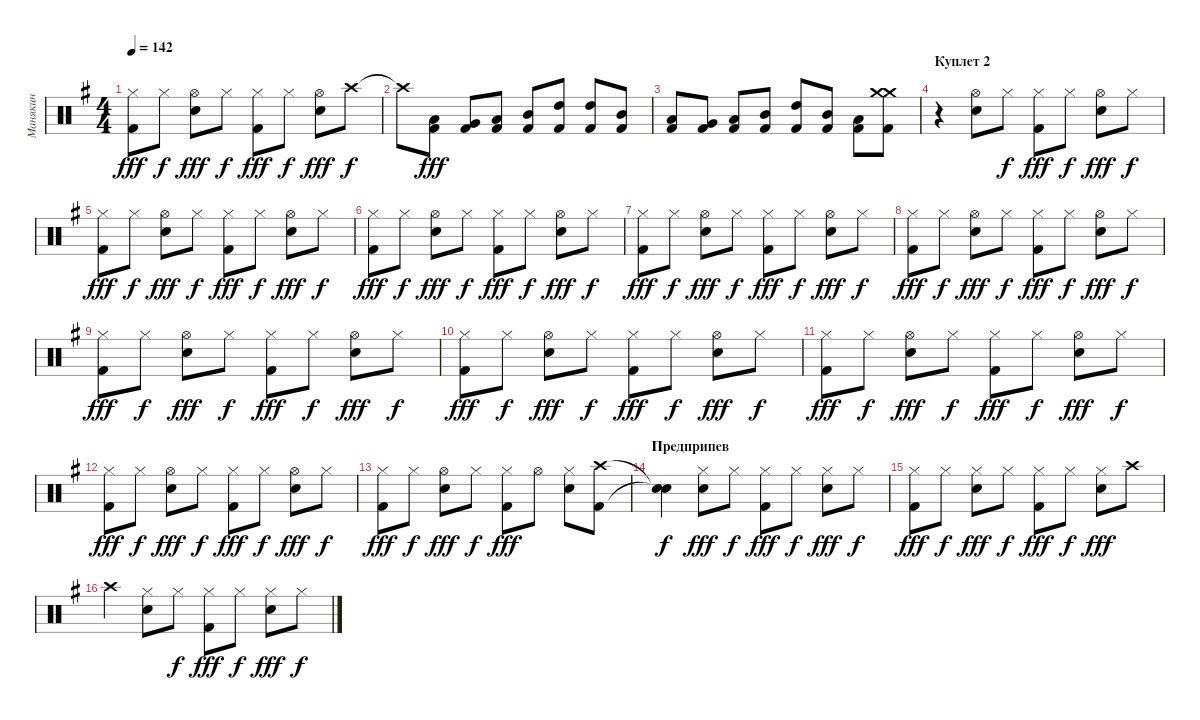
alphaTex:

\track ("Манякин" "Манякин") {instrument percussion}
\staff {score}
\articulation defaults
\ts (4 4)
\tempo 142
\clef neutral
\ks eminor
("Hi-Hat (closed)" "Kick (hit) 2").8{dy fff} "Hi-Hat (closed)".8{dy f} ("Hi-Hat (open)" "Electric Snare (hit)").8{dy fff} "Hi-Hat (closed)".8{dy f} ("Hi-Hat (closed)" "Kick (hit) 2").8{dy fff} "Hi-Hat (closed)".8{dy f} ("Hi-Hat (open)" "Electric Snare (hit)").8{dy fff} "Crash high (hit)".8{dy f} |
"Crash high (hit)"{t}.8 ("Low Floor Tom (hit)" "Kick (hit) 2").8{dy fff} ("Very Low Tom (hit)" "Kick (hit) 2").8 ("Low Tom (hit)" "Kick (hit) 2").8 ("Mid Tom (hit)" "Kick (hit) 2").8 ("High Tom (hit)" "Kick (hit) 2").8 ("High Tom (hit)" "Kick (hit) 2").8 ("Mid Tom (hit)" "Kick (hit) 2").8 |
("Low Floor Tom (hit)" "Kick (hit) 2").8 ("Very Low Tom (hit)" "Kick (hit) 2").8 ("Low Tom (hit)" "Kick (hit) 2").8 ("Mid Tom (hit)" "Kick (hit) 2").8 ("High Tom (hit)" "Kick (hit) 2").8 ("Mid Tom (hit)" "Kick (hit) 2").8 ("Low Tom (hit)" "Kick (hit) 2").8 ("Crash medium (hit)" "Crash medium (hit)" "Kick (hit) 2").8 |
\section ("" "Куплет 2")
r.4 ("Hi-Hat (open)" "Electric Snare (hit)").8 "Hi-Hat (closed)".8{dy f} ("Hi-Hat (closed)" "Kick (hit) 2").8{dy fff} "Hi-Hat (closed)".8{dy f} ("Hi-Hat (open)" "Electric Snare (hit)").8{dy fff} "Hi-Hat (closed)".8{dy f} |
("Hi-Hat (closed)" "Kick (hit) 2").8{dy fff} "Hi-Hat (closed)".8{dy f} ("Hi-Hat (open)" "Electric Snare (hit)").8{dy fff} "Hi-Hat (closed)".8{dy f} ("Hi-Hat (closed)" "Kick (hit) 2").8{dy fff} "Hi-Hat (closed)".8{dy f} ("Hi-Hat (open)" "Electric Snare (hit)").8{dy fff} "Hi-Hat (closed)".8{dy f} |
("Hi-Hat (closed)" "Kick (hit) 2").8{dy fff} "Hi-Hat (closed)".8{dy f} ("Hi-Hat (open)" "Electric Snare (hit)").8{dy fff} "Hi-Hat (closed)".8{dy f} ("Hi-Hat (closed)" "Kick (hit) 2").8{dy fff} "Hi-Hat (closed)".8{dy f} ("Hi-Hat (open)" "Electric Snare (hit)").8{dy fff} "Hi-Hat (closed)".8{dy f} |
("Hi-Hat (closed)" "Kick (hit) 2").8{dy fff} "Hi-Hat (closed)".8{dy f} ("Hi-Hat (open)" "Electric Snare (hit)").8{dy fff} "Hi-Hat (closed)".8{dy f} ("Hi-Hat (closed)" "Kick (hit) 2").8{dy fff} "Hi-Hat (closed)".8{dy f} ("Hi-Hat (open)" "Electric Snare (hit)").8{dy fff} "Hi-Hat (closed)".8{dy f} |
("Hi-Hat (closed)" "Kick (hit) 2").8{dy fff} "Hi-Hat (closed)".8{dy f} ("Hi-Hat (open)" "Electric Snare (hit)").8{dy fff} "Hi-Hat (closed)".8{dy f} ("Hi-Hat (closed)" "Kick (hit) 2").8{dy fff} "Hi-Hat (closed)".8{dy f} ("Hi-Hat (open)" "Electric Snare (hit)").8{dy fff} "Hi-Hat (closed)".8{dy f} |
("Hi-Hat (closed)" "Kick (hit) 2").8{dy fff} "Hi-Hat (closed)".8{dy f} ("Hi-Hat (open)" "Electric Snare (hit)").8{dy fff} "Hi-Hat (closed)".8{dy f} ("Hi-Hat (closed)" "Kick (hit) 2").8{dy fff} "Hi-Hat (closed)".8{dy f} ("Hi-Hat (open)" "Electric Snare (hit)").8{dy fff} "Hi-Hat (closed)".8{dy f} |
("Hi-Hat (closed)" "Kick (hit) 2").8{dy fff} "Hi-Hat (closed)".8{dy f} ("Hi-Hat (open)" "Electric Snare (hit)").8{dy fff} "Hi-Hat (closed)".8{dy f} ("Hi-Hat (closed)" "Kick (hit) 2").8{dy fff} "Hi-Hat (closed)".8{dy f} ("Hi-Hat (open)" "Electric Snare (hit)").8{dy fff} "Hi-Hat (closed)".8{dy f} |
("Hi-Hat (closed)" "Kick (hit) 2").8{dy fff} "Hi-Hat (closed)".8{dy f} ("Hi-Hat (open)" "Electric Snare (hit)").8{dy fff} "Hi-Hat (closed)".8{dy f} ("Hi-Hat (closed)" "Kick (hit) 2").8{dy fff} "Hi-Hat (closed)".8{dy f} ("Hi-Hat (open)" "Electric Snare (hit)").8{dy fff} "Hi-Hat (closed)".8{dy f} |
("Hi-Hat (closed)" "Kick (hit) 2").8{dy fff} "Hi-Hat (closed)".8{dy f} ("Hi-Hat (open)" "Electric Snare (hit)").8{dy fff} "Hi-Hat (closed)".8{dy f} ("Hi-Hat (closed)" "Kick (hit) 2").8{dy fff} "Hi-Hat (closed)".8{dy f} ("Hi-Hat (open)" "Electric Snare (hit)").8{dy fff} "Hi-Hat (closed)".8{dy f} |
("Hi-Hat (closed)" "Kick (hit) 2").8{dy fff} "Hi-Hat (closed)".8{dy f} ("Hi-Hat (open)" "Electric Snare (hit)").8{dy fff} "Hi-Hat (closed)".8{dy f} ("Hi-Hat (closed)" "Kick (hit) 2").8{dy fff} "Hi-Hat (open)".8 ("Hi-Hat (closed)" "Electric Snare (hit)").8 ("Crash high (hit)" "Kick (hit) 2").8 |
\section ("" "Предприпев")
("Snare (hit)"{t} "Snare (hit)"{t}).4{dy f} ("Hi-Hat (closed)" "Electric Snare (hit)").8{dy fff} "Hi-Hat (closed)".8{dy f} ("Hi-Hat (closed)" "Kick (hit) 2").8{dy fff} "Hi-Hat (closed)".8{dy f} ("Hi-Hat (closed)" "Electric Snare (hit)").8{dy fff} "Hi-Hat (closed)".8{dy f} |
("Hi-Hat (closed)" "Kick (hit) 2").8{dy fff} "Hi-Hat (closed)".8{dy f} ("Hi-Hat (closed)" "Electric Snare (hit)").8{dy fff} "Hi-Hat (closed)".8{dy f} ("Hi-Hat (closed)" "Kick (hit) 2").8{dy fff} "Hi-Hat (closed)".8{dy f} ("Hi-Hat (closed)" "Electric Snare (hit)").8{dy fff} "Crash high (hit)".8 |
"Crash high (hit)".4 ("Hi-Hat (closed)" "Electric Snare (hit)").8 "Hi-Hat (closed)".8{dy f} ("Hi-Hat (closed)" "Kick (hit) 2").8{dy fff} "Hi-Hat (closed)".8{dy f} ("Hi-Hat (closed)" "Electric Snare (hit)").8{dy fff} "Hi-Hat (closed)".8{dy f}
